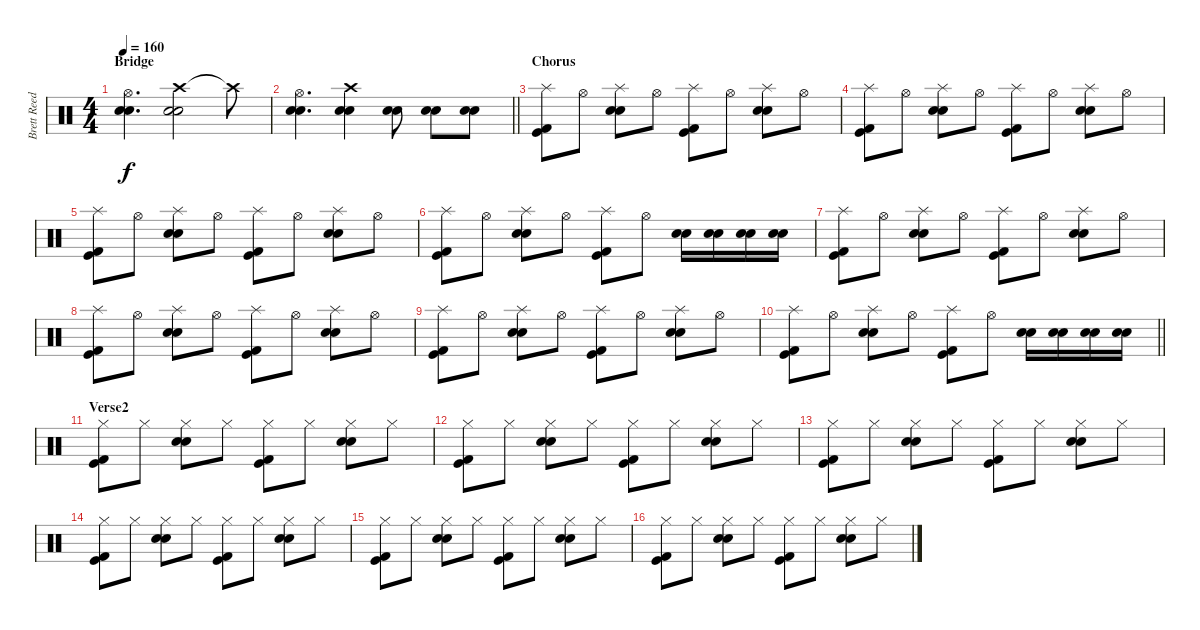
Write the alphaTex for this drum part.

\track ("Brett Reed" "Brett Reed") {instrument percussion}
\staff {score}
\articulation defaults
\ts (4 4)
\section ("" "Bridge")
\tempo 160
\clef neutral
\ks c
("Hi-Hat (open)" "Electric Snare (hit)" "Snare (hit) 2").4{d dy f} ("Crash high (hit)" "Electric Snare (hit)" "Snare (hit) 2").2 "Crash high (hit)"{t}.8 |
\barLineRight lightlight
("Hi-Hat (open)" "Electric Snare (hit)" "Snare (hit) 2").4{d} ("Crash high (hit)" "Electric Snare (hit)" "Snare (hit) 2").4 ("Electric Snare (hit)" "Snare (hit) 2").8 ("Electric Snare (hit)" "Snare (hit) 2").8 ("Electric Snare (hit)" "Snare (hit) 2").8 |
\section ("" "Chorus")
("Splash (hit)" "Kick (hit) 2" "Kick (hit)").8 "Hi-Hat (open)".8 ("Splash (hit)" "Electric Snare (hit)" "Snare (hit) 2").8 "Hi-Hat (open)".8 ("Splash (hit)" "Kick (hit) 2" "Kick (hit)").8 "Hi-Hat (open)".8 ("Splash (hit)" "Electric Snare (hit)" "Snare (hit) 2").8 "Hi-Hat (open)".8 |
("Splash (hit)" "Kick (hit) 2" "Kick (hit)").8 "Hi-Hat (open)".8 ("Splash (hit)" "Electric Snare (hit)" "Snare (hit) 2").8 "Hi-Hat (open)".8 ("Splash (hit)" "Kick (hit) 2" "Kick (hit)").8 "Hi-Hat (open)".8 ("Splash (hit)" "Electric Snare (hit)" "Snare (hit) 2").8 "Hi-Hat (open)".8 |
("Splash (hit)" "Kick (hit) 2" "Kick (hit)").8 "Hi-Hat (open)".8 ("Splash (hit)" "Electric Snare (hit)" "Snare (hit) 2").8 "Hi-Hat (open)".8 ("Splash (hit)" "Kick (hit) 2" "Kick (hit)").8 "Hi-Hat (open)".8 ("Splash (hit)" "Electric Snare (hit)" "Snare (hit) 2").8 "Hi-Hat (open)".8 |
("Splash (hit)" "Kick (hit) 2" "Kick (hit)").8 "Hi-Hat (open)".8 ("Splash (hit)" "Electric Snare (hit)" "Snare (hit) 2").8 "Hi-Hat (open)".8 ("Splash (hit)" "Kick (hit) 2" "Kick (hit)").8 "Hi-Hat (open)".8 ("Electric Snare (hit)" "Snare (hit) 2").16 ("Electric Snare (hit)" "Snare (hit) 2").16 ("Electric Snare (hit)" "Snare (hit) 2").16 ("Electric Snare (hit)" "Snare (hit) 2").16 |
("Splash (hit)" "Kick (hit) 2" "Kick (hit)").8 "Hi-Hat (open)".8 ("Splash (hit)" "Electric Snare (hit)" "Snare (hit) 2").8 "Hi-Hat (open)".8 ("Splash (hit)" "Kick (hit) 2" "Kick (hit)").8 "Hi-Hat (open)".8 ("Splash (hit)" "Electric Snare (hit)" "Snare (hit) 2").8 "Hi-Hat (open)".8 |
("Splash (hit)" "Kick (hit) 2" "Kick (hit)").8 "Hi-Hat (open)".8 ("Splash (hit)" "Electric Snare (hit)" "Snare (hit) 2").8 "Hi-Hat (open)".8 ("Splash (hit)" "Kick (hit) 2" "Kick (hit)").8 "Hi-Hat (open)".8 ("Splash (hit)" "Electric Snare (hit)" "Snare (hit) 2").8 "Hi-Hat (open)".8 |
("Splash (hit)" "Kick (hit) 2" "Kick (hit)").8 "Hi-Hat (open)".8 ("Splash (hit)" "Electric Snare (hit)" "Snare (hit) 2").8 "Hi-Hat (open)".8 ("Splash (hit)" "Kick (hit) 2" "Kick (hit)").8 "Hi-Hat (open)".8 ("Splash (hit)" "Electric Snare (hit)" "Snare (hit) 2").8 "Hi-Hat (open)".8 |
\barLineRight lightlight
("Splash (hit)" "Kick (hit) 2" "Kick (hit)").8 "Hi-Hat (open)".8 ("Splash (hit)" "Electric Snare (hit)" "Snare (hit) 2").8 "Hi-Hat (open)".8 ("Splash (hit)" "Kick (hit) 2" "Kick (hit)").8 "Hi-Hat (open)".8 ("Electric Snare (hit)" "Snare (hit) 2").16 ("Electric Snare (hit)" "Snare (hit) 2").16 ("Electric Snare (hit)" "Snare (hit) 2").16 ("Electric Snare (hit)" "Snare (hit) 2").16 |
\section ("" "Verse2")
("Hi-Hat (closed)" "Kick (hit) 2" "Kick (hit)").8 "Hi-Hat (closed)".8 ("Hi-Hat (closed)" "Electric Snare (hit)" "Snare (hit) 2").8 "Hi-Hat (closed)".8 ("Hi-Hat (closed)" "Kick (hit) 2" "Kick (hit)").8 "Hi-Hat (closed)".8 ("Hi-Hat (closed)" "Electric Snare (hit)" "Snare (hit) 2").8 "Hi-Hat (closed)".8 |
("Hi-Hat (closed)" "Kick (hit) 2" "Kick (hit)").8 "Hi-Hat (closed)".8 ("Hi-Hat (closed)" "Electric Snare (hit)" "Snare (hit) 2").8 "Hi-Hat (closed)".8 ("Hi-Hat (closed)" "Kick (hit) 2" "Kick (hit)").8 "Hi-Hat (closed)".8 ("Hi-Hat (closed)" "Electric Snare (hit)" "Snare (hit) 2").8 "Hi-Hat (closed)".8 |
("Hi-Hat (closed)" "Kick (hit) 2" "Kick (hit)").8 "Hi-Hat (closed)".8 ("Hi-Hat (closed)" "Electric Snare (hit)" "Snare (hit) 2").8 "Hi-Hat (closed)".8 ("Hi-Hat (closed)" "Kick (hit) 2" "Kick (hit)").8 "Hi-Hat (closed)".8 ("Hi-Hat (closed)" "Electric Snare (hit)" "Snare (hit) 2").8 "Hi-Hat (closed)".8 |
("Hi-Hat (closed)" "Kick (hit) 2" "Kick (hit)").8 "Hi-Hat (closed)".8 ("Hi-Hat (closed)" "Electric Snare (hit)" "Snare (hit) 2").8 "Hi-Hat (closed)".8 ("Hi-Hat (closed)" "Kick (hit) 2" "Kick (hit)").8 "Hi-Hat (closed)".8 ("Hi-Hat (closed)" "Electric Snare (hit)" "Snare (hit) 2").8 "Hi-Hat (closed)".8 |
("Hi-Hat (closed)" "Kick (hit) 2" "Kick (hit)").8 "Hi-Hat (closed)".8 ("Hi-Hat (closed)" "Electric Snare (hit)" "Snare (hit) 2").8 "Hi-Hat (closed)".8 ("Hi-Hat (closed)" "Kick (hit) 2" "Kick (hit)").8 "Hi-Hat (closed)".8 ("Hi-Hat (closed)" "Electric Snare (hit)" "Snare (hit) 2").8 "Hi-Hat (closed)".8 |
("Hi-Hat (closed)" "Kick (hit) 2" "Kick (hit)").8 "Hi-Hat (closed)".8 ("Hi-Hat (closed)" "Electric Snare (hit)" "Snare (hit) 2").8 "Hi-Hat (closed)".8 ("Hi-Hat (closed)" "Kick (hit) 2" "Kick (hit)").8 "Hi-Hat (closed)".8 ("Hi-Hat (closed)" "Electric Snare (hit)" "Snare (hit) 2").8 "Hi-Hat (closed)".8
